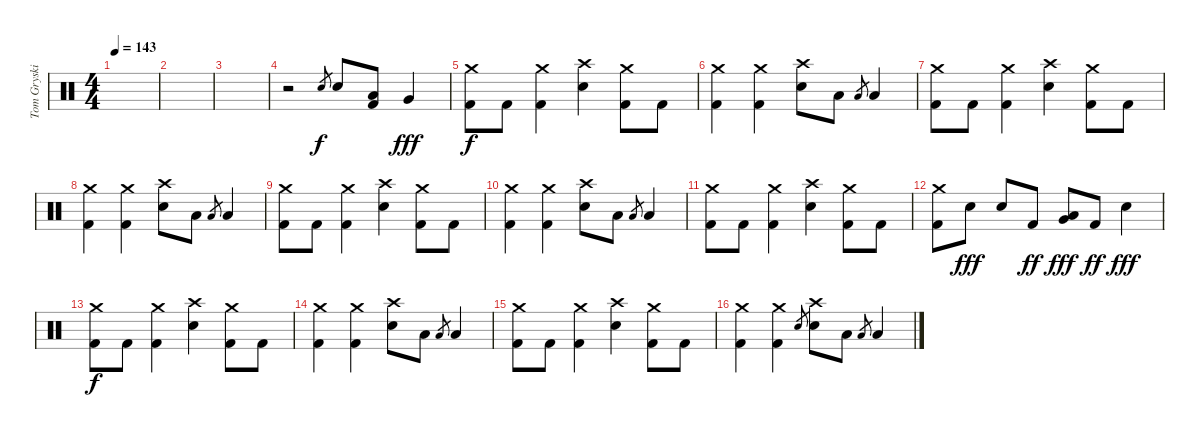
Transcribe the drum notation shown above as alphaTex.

\track ("Tom Gryskiewicz - Drums" "Tom Gryski") {instrument percussion}
\staff {score}
\articulation defaults
\ts (4 4)
\tempo 143
\clef neutral
\ks c
|
|
|
r.2 "Electric Snare (hit)".8{gr} "Electric Snare (hit)".8 ("Low Tom (hit)" "Kick (hit) 2").8 "Very Low Tom (hit)".4{dy fff} |
("Crash medium (hit)" "Kick (hit) 2").8{dy f} "Kick (hit) 2".8 ("Crash medium (hit)" "Kick (hit) 2").4 ("Crash high (hit)" "Electric Snare (hit)").4 ("Crash medium (hit)" "Kick (hit) 2").8 "Kick (hit) 2".8 |
("Crash medium (hit)" "Kick (hit) 2").4 ("Crash medium (hit)" "Kick (hit) 2").4 ("Crash high (hit)" "Electric Snare (hit)").8 "Low Tom (hit)".8 "Low Tom (hit)".8{gr} "Low Tom (hit)".4 |
("Crash medium (hit)" "Kick (hit) 2").8 "Kick (hit) 2".8 ("Crash medium (hit)" "Kick (hit) 2").4 ("Crash high (hit)" "Electric Snare (hit)").4 ("Crash medium (hit)" "Kick (hit) 2").8 "Kick (hit) 2".8 |
("Crash medium (hit)" "Kick (hit) 2").4 ("Crash medium (hit)" "Kick (hit) 2").4 ("Crash high (hit)" "Electric Snare (hit)").8 "Low Tom (hit)".8 "Low Tom (hit)".8{gr} "Low Tom (hit)".4 |
("Crash medium (hit)" "Kick (hit) 2").8 "Kick (hit) 2".8 ("Crash medium (hit)" "Kick (hit) 2").4 ("Crash high (hit)" "Electric Snare (hit)").4 ("Crash medium (hit)" "Kick (hit) 2").8 "Kick (hit) 2".8 |
("Crash medium (hit)" "Kick (hit) 2").4 ("Crash medium (hit)" "Kick (hit) 2").4 ("Crash high (hit)" "Electric Snare (hit)").8 "Low Tom (hit)".8 "Low Tom (hit)".8{gr} "Low Tom (hit)".4 |
("Crash medium (hit)" "Kick (hit) 2").8 "Kick (hit) 2".8 ("Crash medium (hit)" "Kick (hit) 2").4 ("Crash high (hit)" "Electric Snare (hit)").4 ("Crash medium (hit)" "Kick (hit) 2").8 "Kick (hit) 2".8 |
("Crash medium (hit)" "Kick (hit) 2").8 "Electric Snare (hit)".8{dy fff} "Electric Snare (hit)".8 "Kick (hit) 2".8{dy ff} ("Very Low Tom (hit)" "Low Tom (hit)").8{dy fff} "Kick (hit) 2".8{dy ff} "Electric Snare (hit)".4{dy fff} |
("Crash medium (hit)" "Kick (hit) 2").8{dy f} "Kick (hit) 2".8 ("Crash medium (hit)" "Kick (hit) 2").4 ("Crash high (hit)" "Electric Snare (hit)").4 ("Crash medium (hit)" "Kick (hit) 2").8 "Kick (hit) 2".8 |
("Crash medium (hit)" "Kick (hit) 2").4 ("Crash medium (hit)" "Kick (hit) 2").4 ("Crash high (hit)" "Electric Snare (hit)").8 "Low Tom (hit)".8 "Low Tom (hit)".8{gr} "Low Tom (hit)".4 |
("Crash medium (hit)" "Kick (hit) 2").8 "Kick (hit) 2".8 ("Crash medium (hit)" "Kick (hit) 2").4 ("Crash high (hit)" "Electric Snare (hit)").4 ("Crash medium (hit)" "Kick (hit) 2").8 "Kick (hit) 2".8 |
("Crash medium (hit)" "Kick (hit) 2").4 ("Crash medium (hit)" "Kick (hit) 2").4 "Electric Snare (hit)".8{gr} ("Crash high (hit)" "Electric Snare (hit)").8 "Low Tom (hit)".8 "Low Tom (hit)".8{gr} "Low Tom (hit)".4
